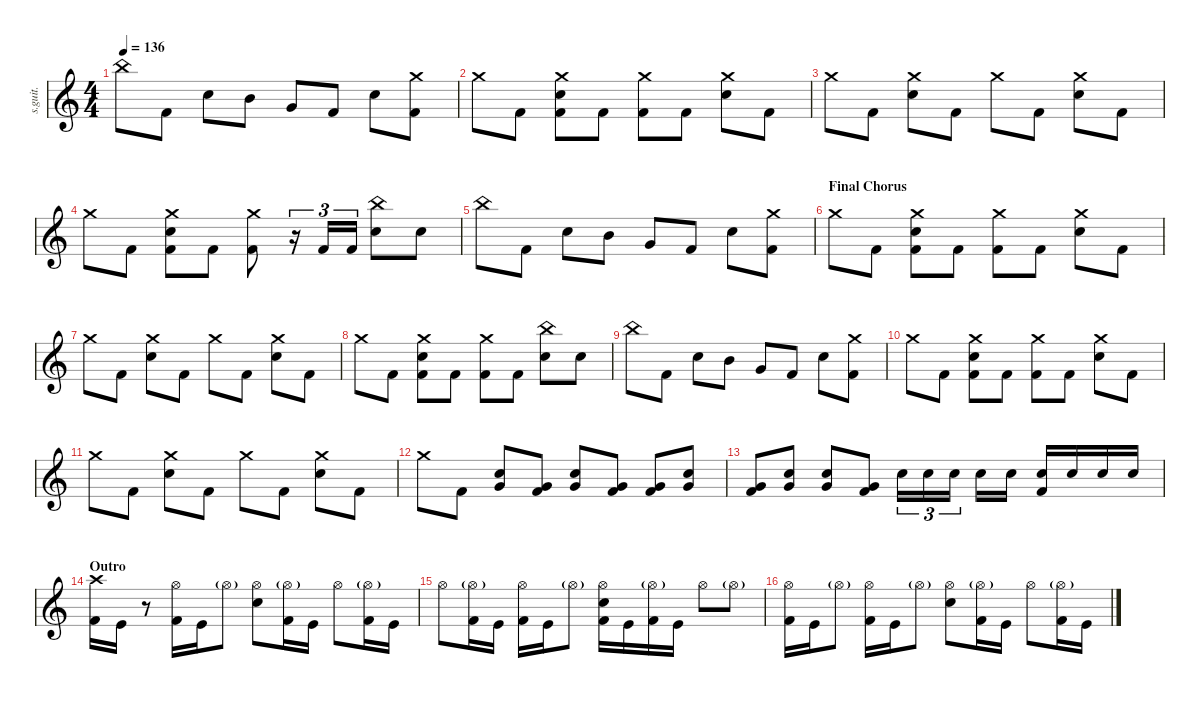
\defaultSystemsLayout 4
\hideDynamics
\bracketExtendMode nobrackets
\track ("Joey Jordison" "s.guit.") {instrument percussion}
\staff {score}
\articulation defaults
\ts (4 4)
\tempo 136
\clef g2
\ks c "China (hit)".8{lyrics (0 "") lyrics (1 "") lyrics (2 "") lyrics (3 "") lyrics (4 "") dy fff} "Kick (hit) 2".8{lyrics (0 "") lyrics (1 "") lyrics (2 "") lyrics (3 "") lyrics (4 "")} "Snare (hit) 2".8{lyrics (0 "") lyrics (1 "") lyrics (2 "") lyrics (3 "") lyrics (4 "")} "Mid Tom (hit)".8{lyrics (0 "") lyrics (1 "") lyrics (2 "") lyrics (3 "") lyrics (4 "")} "Very Low Tom (hit)".8{lyrics (0 "") lyrics (1 "") lyrics (2 "") lyrics (3 "") lyrics (4 "")} "Kick (hit) 2".8{lyrics (0 "") lyrics (1 "") lyrics (2 "") lyrics (3 "") lyrics (4 "")} "Snare (hit) 2".8{lyrics (0 "") lyrics (1 "") lyrics (2 "") lyrics (3 "") lyrics (4 "")}
("Kick (hit) 2" "Crash medium (hit)").8{lyrics (0 "") lyrics (1 "") lyrics (2 "") lyrics (3 "") lyrics (4 "")} |
"Crash medium (hit)".8{lyrics (0 "") lyrics (1 "") lyrics (2 "") lyrics (3 "") lyrics (4 "")} "Kick (hit) 2".8{lyrics (0 "") lyrics (1 "") lyrics (2 "") lyrics (3 "") lyrics (4 "")} ("Snare (hit) 2" "Kick (hit) 2" "Crash medium (hit)").8{lyrics (0 "") lyrics (1 "") lyrics (2 "") lyrics (3 "") lyrics (4 "")} "Kick (hit) 2".8{lyrics (0 "") lyrics (1 "") lyrics (2 "") lyrics (3 "") lyrics (4 "")} ("Kick (hit) 2" "Crash medium (hit)").8{lyrics (0 "") lyrics (1 "") lyrics (2 "") lyrics (3 "") lyrics (4 "")} "Kick (hit) 2".8{lyrics (0 "") lyrics (1 "") lyrics (2 "") lyrics (3 "") lyrics (4 "")} ("Snare (hit) 2" "Crash medium (hit)").8{lyrics (0 "") lyrics (1 "") lyrics (2 "") lyrics (3 "") lyrics (4 "")} "Kick (hit) 2".8{lyrics (0 "") lyrics (1 "") lyrics (2 "") lyrics (3 "") lyrics (4 "")} |
"Crash medium (hit)".8{lyrics (0 "") lyrics (1 "") lyrics (2 "") lyrics (3 "") lyrics (4 "")} "Kick (hit) 2".8{lyrics (0 "") lyrics (1 "") lyrics (2 "") lyrics (3 "") lyrics (4 "")} ("Snare (hit) 2" "Crash medium (hit)").8{lyrics (0 "") lyrics (1 "") lyrics (2 "") lyrics (3 "") lyrics (4 "")} "Kick (hit) 2".8{lyrics (0 "") lyrics (1 "") lyrics (2 "") lyrics (3 "") lyrics (4 "")} "Crash medium (hit)".8{lyrics (0 "") lyrics (1 "") lyrics (2 "") lyrics (3 "") lyrics (4 "")} "Kick (hit) 2".8{lyrics (0 "") lyrics (1 "") lyrics (2 "") lyrics (3 "") lyrics (4 "")} ("Snare (hit) 2" "Crash medium (hit)").8{lyrics (0 "") lyrics (1 "") lyrics (2 "") lyrics (3 "") lyrics (4 "")} "Kick (hit) 2".8{lyrics (0 "") lyrics (1 "") lyrics (2 "") lyrics (3 "") lyrics (4 "")} |
"Crash medium (hit)".8{lyrics (0 "") lyrics (1 "") lyrics (2 "") lyrics (3 "") lyrics (4 "")} "Kick (hit) 2".8{lyrics (0 "") lyrics (1 "") lyrics (2 "") lyrics (3 "") lyrics (4 "")} ("Snare (hit) 2" "Kick (hit) 2" "Crash medium (hit)").8{lyrics (0 "") lyrics (1 "") lyrics (2 "") lyrics (3 "") lyrics (4 "")} "Kick (hit) 2".8{lyrics (0 "") lyrics (1 "") lyrics (2 "") lyrics (3 "") lyrics (4 "")} ("Kick (hit) 2" "Crash medium (hit)").8{lyrics (0 "") lyrics (1 "") lyrics (2 "") lyrics (3 "") lyrics (4 "")} r.16{tu (3 2)} "Kick (hit) 2".16{tu (3 2) lyrics (0 "") lyrics (1 "") lyrics (2 "") lyrics (3 "") lyrics (4 "")} "Kick (hit) 2".16{tu (3 2) lyrics (0 "") lyrics (1 "") lyrics (2 "") lyrics (3 "") lyrics (4 "")} ("Snare (hit) 2" "China (hit)").8{lyrics (0 "") lyrics (1 "") lyrics (2 "") lyrics (3 "") lyrics (4 "")} "Snare (hit) 2".8{lyrics (0 "") lyrics (1 "") lyrics (2 "") lyrics (3 "") lyrics (4 "")} |
"China (hit)".8{lyrics (0 "") lyrics (1 "") lyrics (2 "") lyrics (3 "") lyrics (4 "")} "Kick (hit) 2".8{lyrics (0 "") lyrics (1 "") lyrics (2 "") lyrics (3 "") lyrics (4 "")} "Snare (hit) 2".8{lyrics (0 "") lyrics (1 "") lyrics (2 "") lyrics (3 "") lyrics (4 "")} "Mid Tom (hit)".8{lyrics (0 "") lyrics (1 "") lyrics (2 "") lyrics (3 "") lyrics (4 "")} "Very Low Tom (hit)".8{lyrics (0 "") lyrics (1 "") lyrics (2 "") lyrics (3 "") lyrics (4 "")} "Kick (hit) 2".8{lyrics (0 "") lyrics (1 "") lyrics (2 "") lyrics (3 "") lyrics (4 "")} "Snare (hit) 2".8{lyrics (0 "") lyrics (1 "") lyrics (2 "") lyrics (3 "") lyrics (4 "")} ("Kick (hit) 2" "Crash medium (hit)").8{lyrics (0 "") lyrics (1 "") lyrics (2 "") lyrics (3 "") lyrics (4 "")} |
\section ("" "Final Chorus")
"Crash medium (hit)".8{lyrics (0 "") lyrics (1 "") lyrics (2 "") lyrics (3 "") lyrics (4 "")} "Kick (hit) 2".8{lyrics (0 "") lyrics (1 "") lyrics (2 "") lyrics (3 "") lyrics (4 "")} ("Snare (hit) 2" "Kick (hit) 2" "Crash medium (hit)").8{lyrics (0 "") lyrics (1 "") lyrics (2 "") lyrics (3 "") lyrics (4 "")} "Kick (hit) 2".8{lyrics (0 "") lyrics (1 "") lyrics (2 "") lyrics (3 "") lyrics (4 "")} ("Kick (hit) 2" "Crash medium (hit)").8{lyrics (0 "") lyrics (1 "") lyrics (2 "") lyrics (3 "") lyrics (4 "")} "Kick (hit) 2".8{lyrics (0 "") lyrics (1 "") lyrics (2 "") lyrics (3 "") lyrics (4 "")} ("Snare (hit) 2" "Crash medium (hit)").8{lyrics (0 "") lyrics (1 "") lyrics (2 "") lyrics (3 "") lyrics (4 "")} "Kick (hit) 2".8{lyrics (0 "") lyrics (1 "") lyrics (2 "") lyrics (3 "") lyrics (4 "")} |
"Crash medium (hit)".8{lyrics (0 "") lyrics (1 "") lyrics (2 "") lyrics (3 "") lyrics (4 "")} "Kick (hit) 2".8{lyrics (0 "") lyrics (1 "") lyrics (2 "") lyrics (3 "") lyrics (4 "")} ("Snare (hit) 2" "Crash medium (hit)").8{lyrics (0 "") lyrics (1 "") lyrics (2 "") lyrics (3 "") lyrics (4 "")} "Kick (hit) 2".8{lyrics (0 "") lyrics (1 "") lyrics (2 "") lyrics (3 "") lyrics (4 "")} "Crash medium (hit)".8{lyrics (0 "") lyrics (1 "") lyrics (2 "") lyrics (3 "") lyrics (4 "")} "Kick (hit) 2".8{lyrics (0 "") lyrics (1 "") lyrics (2 "") lyrics (3 "") lyrics (4 "")} ("Snare (hit) 2" "Crash medium (hit)").8{lyrics (0 "") lyrics (1 "") lyrics (2 "") lyrics (3 "") lyrics (4 "")} "Kick (hit) 2".8{lyrics (0 "") lyrics (1 "") lyrics (2 "") lyrics (3 "") lyrics (4 "")} |
"Crash medium (hit)".8{lyrics (0 "") lyrics (1 "") lyrics (2 "") lyrics (3 "") lyrics (4 "")} "Kick (hit) 2".8{lyrics (0 "") lyrics (1 "") lyrics (2 "") lyrics (3 "") lyrics (4 "")} ("Snare (hit) 2" "Kick (hit) 2" "Crash medium (hit)").8{lyrics (0 "") lyrics (1 "") lyrics (2 "") lyrics (3 "") lyrics (4 "")} "Kick (hit) 2".8{lyrics (0 "") lyrics (1 "") lyrics (2 "") lyrics (3 "") lyrics (4 "")} ("Kick (hit) 2" "Crash medium (hit)").8{lyrics (0 "") lyrics (1 "") lyrics (2 "") lyrics (3 "") lyrics (4 "")} "Kick (hit) 2".8{lyrics (0 "") lyrics (1 "") lyrics (2 "") lyrics (3 "") lyrics (4 "")} ("Snare (hit) 2" "China (hit)").8{lyrics (0 "") lyrics (1 "") lyrics (2 "") lyrics (3 "") lyrics (4 "")} "Snare (hit) 2".8{lyrics (0 "") lyrics (1 "") lyrics (2 "") lyrics (3 "") lyrics (4 "")} |
"China (hit)".8{lyrics (0 "") lyrics (1 "") lyrics (2 "") lyrics (3 "") lyrics (4 "")} "Kick (hit) 2".8{lyrics (0 "") lyrics (1 "") lyrics (2 "") lyrics (3 "") lyrics (4 "")} "Snare (hit) 2".8{lyrics (0 "") lyrics (1 "") lyrics (2 "") lyrics (3 "") lyrics (4 "")} "Mid Tom (hit)".8{lyrics (0 "") lyrics (1 "") lyrics (2 "") lyrics (3 "") lyrics (4 "")} "Very Low Tom (hit)".8{lyrics (0 "") lyrics (1 "") lyrics (2 "") lyrics (3 "") lyrics (4 "")} "Kick (hit) 2".8{lyrics (0 "") lyrics (1 "") lyrics (2 "") lyrics (3 "") lyrics (4 "")} "Snare (hit) 2".8{lyrics (0 "") lyrics (1 "") lyrics (2 "") lyrics (3 "") lyrics (4 "")} ("Kick (hit) 2" "Crash medium (hit)").8{lyrics (0 "") lyrics (1 "") lyrics (2 "") lyrics (3 "") lyrics (4 "")} |
"Crash medium (hit)".8{lyrics (0 "") lyrics (1 "") lyrics (2 "") lyrics (3 "") lyrics (4 "")} "Kick (hit) 2".8{lyrics (0 "") lyrics (1 "") lyrics (2 "") lyrics (3 "") lyrics (4 "")} ("Snare (hit) 2" "Kick (hit) 2" "Crash medium (hit)").8{lyrics (0 "") lyrics (1 "") lyrics (2 "") lyrics (3 "") lyrics (4 "")} "Kick (hit) 2".8{lyrics (0 "") lyrics (1 "") lyrics (2 "") lyrics (3 "") lyrics (4 "")} ("Kick (hit) 2" "Crash medium (hit)").8{lyrics (0 "") lyrics (1 "") lyrics (2 "") lyrics (3 "") lyrics (4 "")} "Kick (hit) 2".8{lyrics (0 "") lyrics (1 "") lyrics (2 "") lyrics (3 "") lyrics (4 "")} ("Snare (hit) 2" "Crash medium (hit)").8{lyrics (0 "") lyrics (1 "") lyrics (2 "") lyrics (3 "") lyrics (4 "")} "Kick (hit) 2".8{lyrics (0 "") lyrics (1 "") lyrics (2 "") lyrics (3 "") lyrics (4 "")} |
"Crash medium (hit)".8{lyrics (0 "") lyrics (1 "") lyrics (2 "") lyrics (3 "") lyrics (4 "")} "Kick (hit) 2".8{lyrics (0 "") lyrics (1 "") lyrics (2 "") lyrics (3 "") lyrics (4 "")} ("Snare (hit) 2" "Crash medium (hit)").8{lyrics (0 "") lyrics (1 "") lyrics (2 "") lyrics (3 "") lyrics (4 "")} "Kick (hit) 2".8{lyrics (0 "") lyrics (1 "") lyrics (2 "") lyrics (3 "") lyrics (4 "")} "Crash medium (hit)".8{lyrics (0 "") lyrics (1 "") lyrics (2 "") lyrics (3 "") lyrics (4 "")} "Kick (hit) 2".8{lyrics (0 "") lyrics (1 "") lyrics (2 "") lyrics (3 "") lyrics (4 "")} ("Snare (hit) 2" "Crash medium (hit)").8{lyrics (0 "") lyrics (1 "") lyrics (2 "") lyrics (3 "") lyrics (4 "")} "Kick (hit) 2".8{lyrics (0 "") lyrics (1 "") lyrics (2 "") lyrics (3 "") lyrics (4 "")} |
"Crash medium (hit)".8{lyrics (0 "") lyrics (1 "") lyrics (2 "") lyrics (3 "") lyrics (4 "")} "Kick (hit) 2".8{lyrics (0 "") lyrics (1 "") lyrics (2 "") lyrics (3 "") lyrics (4 "")} ("Snare (hit) 2" "Very Low Tom (hit)").8{lyrics (0 "") lyrics (1 "") lyrics (2 "") lyrics (3 "") lyrics (4 "")} ("Kick (hit) 2" "Very Low Tom (hit)").8{lyrics (0 "") lyrics (1 "") lyrics (2 "") lyrics (3 "") lyrics (4 "")} ("Snare (hit) 2" "Very Low Tom (hit)").8{lyrics (0 "") lyrics (1 "") lyrics (2 "") lyrics (3 "") lyrics (4 "")} ("Kick (hit) 2" "Very Low Tom (hit)").8{lyrics (0 "") lyrics (1 "") lyrics (2 "") lyrics (3 "") lyrics (4 "")} ("Kick (hit) 2" "Very Low Tom (hit)").8{lyrics (0 "") lyrics (1 "") lyrics (2 "") lyrics (3 "") lyrics (4 "")} ("Snare (hit) 2" "Very Low Tom (hit)").8{lyrics (0 "") lyrics (1 "") lyrics (2 "") lyrics (3 "") lyrics (4 "")} |
("Kick (hit) 2" "Very Low Tom (hit)").8{lyrics (0 "") lyrics (1 "") lyrics (2 "") lyrics (3 "") lyrics (4 "")} ("Snare (hit) 2" "Very Low Tom (hit)").8{lyrics (0 "") lyrics (1 "") lyrics (2 "") lyrics (3 "") lyrics (4 "")} ("Snare (hit) 2" "Very Low Tom (hit)").8{lyrics (0 "") lyrics (1 "") lyrics (2 "") lyrics (3 "") lyrics (4 "")} ("Kick (hit) 2" "Very Low Tom (hit)").8{lyrics (0 "") lyrics (1 "") lyrics (2 "") lyrics (3 "") lyrics (4 "")} "Snare (hit) 2".16{tu (3 2) lyrics (0 "") lyrics (1 "") lyrics (2 "") lyrics (3 "") lyrics (4 "")} "Snare (hit) 2".16{tu (3 2) lyrics (0 "") lyrics (1 "") lyrics (2 "") lyrics (3 "") lyrics (4 "")} "Snare (hit) 2".16{tu (3 2) lyrics (0 "") lyrics (1 "") lyrics (2 "") lyrics (3 "") lyrics (4 "")} "Snare (hit) 2".16{lyrics (0 "") lyrics (1 "") lyrics (2 "") lyrics (3 "") lyrics (4 "")} "Snare (hit) 2".16{lyrics (0 "") lyrics (1 "") lyrics (2 "") lyrics (3 "") lyrics (4 "")} ("Snare (hit) 2" "Kick (hit) 2").16{lyrics (0 "") lyrics (1 "") lyrics (2 "") lyrics (3 "") lyrics (4 "")} "Snare (hit) 2".16{lyrics (0 "") lyrics (1 "") lyrics (2 "") lyrics (3 "") lyrics (4 "")} "Snare (hit) 2".16{lyrics (0 "") lyrics (1 "") lyrics (2 "") lyrics (3 "") lyrics (4 "")} "Snare (hit) 2".16{lyrics (0 "") lyrics (1 "") lyrics (2 "") lyrics (3 "") lyrics (4 "")} |
\section ("" "Outro")
("Kick (hit) 2" "Crash high (hit)").16{lyrics (0 "") lyrics (1 "") lyrics (2 "") lyrics (3 "") lyrics (4 "")} "Kick (hit)".16{lyrics (0 "") lyrics (1 "") lyrics (2 "") lyrics (3 "") lyrics (4 "")} r.8 ("Kick (hit) 2" "Hi-Hat (open)").16{lyrics (0 "") lyrics (1 "") lyrics (2 "") lyrics (3 "") lyrics (4 "")} "Kick (hit)".16{lyrics (0 "") lyrics (1 "") lyrics (2 "") lyrics (3 "") lyrics (4 "")} "Hi-Hat (open)"{g}.8{lyrics (0 "") lyrics (1 "") lyrics (2 "") lyrics (3 "") lyrics (4 "")} ("Hi-Hat (open)" "Snare (hit) 2").8{lyrics (0 "") lyrics (1 "") lyrics (2 "") lyrics (3 "") lyrics (4 "")} ("Kick (hit) 2" "Hi-Hat (open)"{g}).16{lyrics (0 "") lyrics (1 "") lyrics (2 "") lyrics (3 "") lyrics (4 "")} "Kick (hit)".16{lyrics (0 "") lyrics (1 "") lyrics (2 "") lyrics (3 "") lyrics (4 "")} "Hi-Hat (open)".8{lyrics (0 "") lyrics (1 "") lyrics (2 "") lyrics (3 "") lyrics (4 "")} ("Kick (hit) 2" "Hi-Hat (open)"{g}).16{lyrics (0 "") lyrics (1 "") lyrics (2 "") lyrics (3 "") lyrics (4 "")} "Kick (hit)".16{lyrics (0 "") lyrics (1 "") lyrics (2 "") lyrics (3 "") lyrics (4 "")} |
"Hi-Hat (open)".8{lyrics (0 "") lyrics (1 "") lyrics (2 "") lyrics (3 "") lyrics (4 "")} ("Kick (hit) 2" "Hi-Hat (open)"{g}).16{lyrics (0 "") lyrics (1 "") lyrics (2 "") lyrics (3 "") lyrics (4 "")} "Kick (hit)".16{lyrics (0 "") lyrics (1 "") lyrics (2 "") lyrics (3 "") lyrics (4 "")} ("Kick (hit) 2" "Hi-Hat (open)").16{lyrics (0 "") lyrics (1 "") lyrics (2 "") lyrics (3 "") lyrics (4 "")} "Kick (hit)".16{lyrics (0 "") lyrics (1 "") lyrics (2 "") lyrics (3 "") lyrics (4 "")} "Hi-Hat (open)"{g}.8{lyrics (0 "") lyrics (1 "") lyrics (2 "") lyrics (3 "") lyrics (4 "")} ("Snare (hit) 2" "Hi-Hat (open)" "Kick (hit) 2").16{lyrics (0 "") lyrics (1 "") lyrics (2 "") lyrics (3 "") lyrics (4 "")} "Kick (hit)".16{lyrics (0 "") lyrics (1 "") lyrics (2 "") lyrics (3 "") lyrics (4 "")} ("Kick (hit) 2" "Hi-Hat (open)"{g}).16{lyrics (0 "") lyrics (1 "") lyrics (2 "") lyrics (3 "") lyrics (4 "")} "Kick (hit)".16{lyrics (0 "") lyrics (1 "") lyrics (2 "") lyrics (3 "") lyrics (4 "")} "Hi-Hat (open)".8{lyrics (0 "") lyrics (1 "") lyrics (2 "") lyrics (3 "") lyrics (4 "")} "Hi-Hat (open)"{g}.8{lyrics (0 "") lyrics (1 "") lyrics (2 "") lyrics (3 "") lyrics (4 "")} |
("Kick (hit) 2" "Hi-Hat (open)").16{lyrics (0 "") lyrics (1 "") lyrics (2 "") lyrics (3 "") lyrics (4 "")} "Kick (hit)".16{lyrics (0 "") lyrics (1 "") lyrics (2 "") lyrics (3 "") lyrics (4 "")} "Hi-Hat (open)"{g}.8{lyrics (0 "") lyrics (1 "") lyrics (2 "") lyrics (3 "") lyrics (4 "")} ("Kick (hit) 2" "Hi-Hat (open)").16{lyrics (0 "") lyrics (1 "") lyrics (2 "") lyrics (3 "") lyrics (4 "")} "Kick (hit)".16{lyrics (0 "") lyrics (1 "") lyrics (2 "") lyrics (3 "") lyrics (4 "")} "Hi-Hat (open)"{g}.8{lyrics (0 "") lyrics (1 "") lyrics (2 "") lyrics (3 "") lyrics (4 "")} ("Hi-Hat (open)" "Snare (hit) 2").8{lyrics (0 "") lyrics (1 "") lyrics (2 "") lyrics (3 "") lyrics (4 "")} ("Kick (hit) 2" "Hi-Hat (open)"{g}).16{lyrics (0 "") lyrics (1 "") lyrics (2 "") lyrics (3 "") lyrics (4 "")} "Kick (hit)".16{lyrics (0 "") lyrics (1 "") lyrics (2 "") lyrics (3 "") lyrics (4 "")} "Hi-Hat (open)".8{lyrics (0 "") lyrics (1 "") lyrics (2 "") lyrics (3 "") lyrics (4 "")} ("Kick (hit) 2" "Hi-Hat (open)"{g}).16{lyrics (0 "") lyrics (1 "") lyrics (2 "") lyrics (3 "") lyrics (4 "")} "Kick (hit)".16{lyrics (0 "") lyrics (1 "") lyrics (2 "") lyrics (3 "") lyrics (4 "")}
